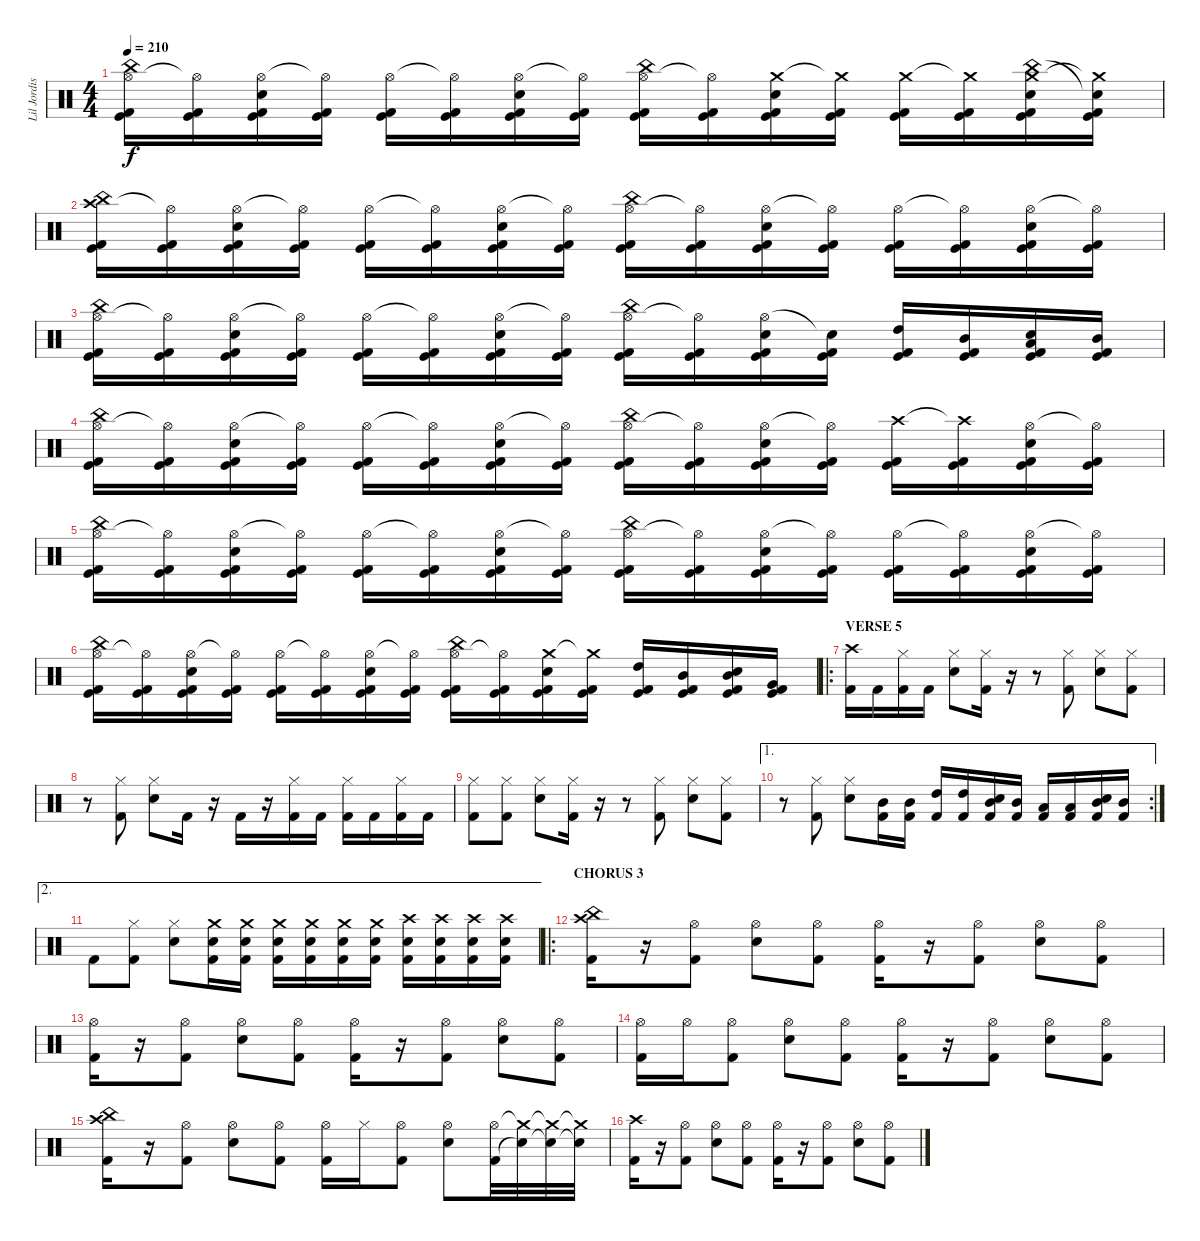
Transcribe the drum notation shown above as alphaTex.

\track ("Lil Jordison" "Lil Jordis") {instrument percussion}
\staff {score}
\articulation defaults
\ts (4 4)
\tempo 210
\clef neutral
\ks c
("Hi-Hat (open)" "China (hit)" "Kick (hit)" "Kick (hit) 2").16{dy f} ("Hi-Hat (open)"{t} "Kick (hit)" "Kick (hit) 2").16 ("Hi-Hat (open)" "Electric Snare (hit)" "Kick (hit)" "Kick (hit) 2").16 ("Hi-Hat (open)"{t} "Kick (hit)" "Kick (hit) 2").16 ("Hi-Hat (open)" "Kick (hit)" "Kick (hit) 2").16 ("Hi-Hat (open)"{t} "Kick (hit)" "Kick (hit) 2").16 ("Hi-Hat (open)" "Electric Snare (hit)" "Kick (hit)" "Kick (hit) 2").16 ("Hi-Hat (open)"{t} "Kick (hit)" "Kick (hit) 2").16 ("Hi-Hat (open)" "China (hit)" "Kick (hit)" "Kick (hit) 2").16 ("Hi-Hat (open)"{t} "Kick (hit)" "Kick (hit) 2").16 ("Crash medium (hit)" "Electric Snare (hit)" "Kick (hit)" "Kick (hit) 2").16 ("Crash medium (hit)"{t} "Kick (hit)" "Kick (hit) 2").16 ("Crash medium (hit)" "Kick (hit)" "Kick (hit) 2").16 ("Crash medium (hit)"{t} "Kick (hit)" "Kick (hit) 2").16 ("Crash medium (hit)" "China (hit)" "Electric Snare (hit)" "Kick (hit)" "Kick (hit) 2").16 ("Crash medium (hit)"{t} "Snare (hit)"{t} "Kick (hit)" "Kick (hit) 2").16 |
("Crash high (hit)" "China (hit)" "Kick (hit)" "Kick (hit) 2").16 ("Hi-Hat (open)"{t} "Kick (hit)" "Kick (hit) 2").16 ("Hi-Hat (open)" "Electric Snare (hit)" "Kick (hit)" "Kick (hit) 2").16 ("Hi-Hat (open)"{t} "Kick (hit)" "Kick (hit) 2").16 ("Hi-Hat (open)" "Kick (hit)" "Kick (hit) 2").16 ("Hi-Hat (open)"{t} "Kick (hit)" "Kick (hit) 2").16 ("Hi-Hat (open)" "Electric Snare (hit)" "Kick (hit)" "Kick (hit) 2").16 ("Hi-Hat (open)"{t} "Kick (hit)" "Kick (hit) 2").16 ("Hi-Hat (open)" "China (hit)" "Kick (hit)" "Kick (hit) 2").16 ("Hi-Hat (open)"{t} "Kick (hit)" "Kick (hit) 2").16 ("Hi-Hat (open)" "Electric Snare (hit)" "Kick (hit)" "Kick (hit) 2").16 ("Hi-Hat (open)"{t} "Kick (hit)" "Kick (hit) 2").16 ("Hi-Hat (open)" "Kick (hit)" "Kick (hit) 2").16 ("Hi-Hat (open)"{t} "Kick (hit)" "Kick (hit) 2").16 ("Hi-Hat (open)" "Electric Snare (hit)" "Kick (hit)" "Kick (hit) 2").16 ("Hi-Hat (open)"{t} "Kick (hit)" "Kick (hit) 2").16 |
("Hi-Hat (open)" "China (hit)" "Kick (hit)" "Kick (hit) 2").16 ("Hi-Hat (open)"{t} "Kick (hit)" "Kick (hit) 2").16 ("Hi-Hat (open)" "Electric Snare (hit)" "Kick (hit)" "Kick (hit) 2").16 ("Hi-Hat (open)"{t} "Kick (hit)" "Kick (hit) 2").16 ("Hi-Hat (open)" "Kick (hit)" "Kick (hit) 2").16 ("Hi-Hat (open)"{t} "Kick (hit)" "Kick (hit) 2").16 ("Hi-Hat (open)" "Electric Snare (hit)" "Kick (hit)" "Kick (hit) 2").16 ("Hi-Hat (open)"{t} "Kick (hit)" "Kick (hit) 2").16 ("Hi-Hat (open)" "China (hit)" "Kick (hit)" "Kick (hit) 2").16 ("Hi-Hat (open)"{t} "Kick (hit)" "Kick (hit) 2").16 ("Hi-Hat (open)" "Electric Snare (hit)" "Kick (hit)" "Kick (hit) 2").16 ("Snare (hit)"{t} "Kick (hit)" "Kick (hit) 2").16 ("High Tom (hit)" "Kick (hit)" "Kick (hit) 2").16 ("Mid Tom (hit)" "Kick (hit)" "Kick (hit) 2").16 ("Low Tom (hit)" "Electric Snare (hit)" "Kick (hit)" "Kick (hit) 2").16 ("Mid Tom (hit)" "Kick (hit)" "Kick (hit) 2").16 |
("Hi-Hat (open)" "China (hit)" "Kick (hit)" "Kick (hit) 2").16 ("Hi-Hat (open)"{t} "Kick (hit)" "Kick (hit) 2").16 ("Hi-Hat (open)" "Electric Snare (hit)" "Kick (hit)" "Kick (hit) 2").16 ("Hi-Hat (open)"{t} "Kick (hit)" "Kick (hit) 2").16 ("Hi-Hat (open)" "Kick (hit)" "Kick (hit) 2").16 ("Hi-Hat (open)"{t} "Kick (hit)" "Kick (hit) 2").16 ("Hi-Hat (open)" "Electric Snare (hit)" "Kick (hit)" "Kick (hit) 2").16 ("Hi-Hat (open)"{t} "Kick (hit)" "Kick (hit) 2").16 ("Hi-Hat (open)" "China (hit)" "Kick (hit)" "Kick (hit) 2").16 ("Hi-Hat (open)"{t} "Kick (hit)" "Kick (hit) 2").16 ("Hi-Hat (open)" "Electric Snare (hit)" "Kick (hit)" "Kick (hit) 2").16 ("Hi-Hat (open)"{t} "Kick (hit)" "Kick (hit) 2").16 ("Crash high (hit)" "Kick (hit)" "Kick (hit) 2").16 ("Crash high (hit)"{t} "Kick (hit)" "Kick (hit) 2").16 ("Hi-Hat (open)" "Electric Snare (hit)" "Kick (hit)" "Kick (hit) 2").16 ("Hi-Hat (open)"{t} "Kick (hit)" "Kick (hit) 2").16 |
("Hi-Hat (open)" "China (hit)" "Kick (hit)" "Kick (hit) 2").16 ("Hi-Hat (open)"{t} "Kick (hit)" "Kick (hit) 2").16 ("Hi-Hat (open)" "Electric Snare (hit)" "Kick (hit)" "Kick (hit) 2").16 ("Hi-Hat (open)"{t} "Kick (hit)" "Kick (hit) 2").16 ("Hi-Hat (open)" "Kick (hit)" "Kick (hit) 2").16 ("Hi-Hat (open)"{t} "Kick (hit)" "Kick (hit) 2").16 ("Hi-Hat (open)" "Electric Snare (hit)" "Kick (hit)" "Kick (hit) 2").16 ("Hi-Hat (open)"{t} "Kick (hit)" "Kick (hit) 2").16 ("Hi-Hat (open)" "China (hit)" "Kick (hit)" "Kick (hit) 2").16 ("Hi-Hat (open)"{t} "Kick (hit)" "Kick (hit) 2").16 ("Hi-Hat (open)" "Electric Snare (hit)" "Kick (hit)" "Kick (hit) 2").16 ("Hi-Hat (open)"{t} "Kick (hit)" "Kick (hit) 2").16 ("Hi-Hat (open)" "Kick (hit)" "Kick (hit) 2").16 ("Hi-Hat (open)"{t} "Kick (hit)" "Kick (hit) 2").16 ("Hi-Hat (open)" "Electric Snare (hit)" "Kick (hit)" "Kick (hit) 2").16 ("Hi-Hat (open)"{t} "Kick (hit)" "Kick (hit) 2").16 |
("Hi-Hat (open)" "China (hit)" "Kick (hit)" "Kick (hit) 2").16 ("Hi-Hat (open)"{t} "Kick (hit)" "Kick (hit) 2").16 ("Hi-Hat (open)" "Electric Snare (hit)" "Kick (hit)" "Kick (hit) 2").16 ("Hi-Hat (open)"{t} "Kick (hit)" "Kick (hit) 2").16 ("Hi-Hat (open)" "Kick (hit)" "Kick (hit) 2").16 ("Hi-Hat (open)"{t} "Kick (hit)" "Kick (hit) 2").16 ("Hi-Hat (open)" "Electric Snare (hit)" "Kick (hit)" "Kick (hit) 2").16 ("Hi-Hat (open)"{t} "Kick (hit)" "Kick (hit) 2").16 ("Hi-Hat (open)" "China (hit)" "Kick (hit)" "Kick (hit) 2").16 ("Hi-Hat (open)"{t} "Kick (hit)" "Kick (hit) 2").16 ("Crash medium (hit)" "Electric Snare (hit)" "Kick (hit)" "Kick (hit) 2").16 ("Crash medium (hit)"{t} "Kick (hit)" "Kick (hit) 2").16 ("High Tom (hit)" "Kick (hit)" "Kick (hit) 2").16 ("Mid Tom (hit)" "Kick (hit)" "Kick (hit) 2").16 ("Mid Tom (hit)" "Electric Snare (hit)" "Kick (hit)" "Kick (hit) 2").16 ("Very Low Tom (hit)" "Kick (hit)" "Kick (hit) 2").16 |
\ro
\section ("" "VERSE 5")
("Crash high (hit)" "Kick (hit) 2").16 "Kick (hit) 2".16 ("Hi-Hat (closed)" "Kick (hit) 2").16 "Kick (hit) 2".16 ("Hi-Hat (closed)" "Electric Snare (hit)").8 ("Hi-Hat (closed)" "Kick (hit) 2").16 r.16 r.8 ("Hi-Hat (closed)" "Kick (hit) 2").8 ("Hi-Hat (closed)" "Electric Snare (hit)").8 ("Hi-Hat (closed)" "Kick (hit) 2").8 |
r.8 ("Hi-Hat (closed)" "Kick (hit) 2").8 ("Hi-Hat (closed)" "Electric Snare (hit)").8 "Kick (hit) 2".16 r.16 "Kick (hit) 2".16 r.16 ("Hi-Hat (closed)" "Kick (hit) 2").16 "Kick (hit) 2".16 ("Hi-Hat (closed)" "Kick (hit) 2").16 "Kick (hit) 2".16 ("Hi-Hat (closed)" "Kick (hit) 2").16 "Kick (hit) 2".16 |
("Hi-Hat (closed)" "Kick (hit) 2").8 ("Hi-Hat (closed)" "Kick (hit) 2").8 ("Hi-Hat (closed)" "Electric Snare (hit)").8 ("Hi-Hat (closed)" "Kick (hit) 2").16 r.16 r.8 ("Hi-Hat (closed)" "Kick (hit) 2").8 ("Hi-Hat (closed)" "Electric Snare (hit)").8 ("Hi-Hat (closed)" "Kick (hit) 2").8 |
\ae 1
\rc 2
r.8 ("Hi-Hat (closed)" "Kick (hit) 2").8 ("Hi-Hat (closed)" "Electric Snare (hit)").8 ("Mid Tom (hit)" "Kick (hit) 2").16 ("Mid Tom (hit)" "Kick (hit) 2").16 ("High Tom (hit)" "Kick (hit) 2").16 ("High Tom (hit)" "Kick (hit) 2").16 ("Mid Tom (hit)" "Electric Snare (hit)" "Kick (hit) 2").16 ("Mid Tom (hit)" "Kick (hit) 2").16 ("Low Tom (hit)" "Kick (hit) 2").16 ("Low Tom (hit)" "Kick (hit) 2").16 ("Mid Tom (hit)" "Electric Snare (hit)" "Kick (hit) 2").16 ("Mid Tom (hit)" "Kick (hit) 2").16 |
\ae 2 "Kick (hit) 2".8
("Hi-Hat (closed)" "Kick (hit) 2").8 ("Hi-Hat (closed)" "Electric Snare (hit)").8 ("Crash medium (hit)" "Electric Snare (hit)" "Kick (hit) 2").16 ("Crash medium (hit)" "Electric Snare (hit)" "Kick (hit) 2").16 ("Crash medium (hit)" "Electric Snare (hit)" "Kick (hit) 2").16 ("Crash medium (hit)" "Electric Snare (hit)" "Kick (hit) 2").16 ("Crash medium (hit)" "Electric Snare (hit)" "Kick (hit) 2").16 ("Crash medium (hit)" "Electric Snare (hit)" "Kick (hit) 2").16 ("Crash high (hit)" "Electric Snare (hit)" "Kick (hit) 2").16 ("Crash high (hit)" "Electric Snare (hit)" "Kick (hit) 2").16 ("Crash high (hit)" "Electric Snare (hit)" "Kick (hit) 2").16 ("Crash high (hit)" "Electric Snare (hit)" "Kick (hit) 2").16 |
\ro
\section ("" "CHORUS 3")
("Crash high (hit)" "China (hit)" "Kick (hit) 2").16 r.16 ("Hi-Hat (open)" "Kick (hit) 2").8 ("Hi-Hat (open)" "Electric Snare (hit)").8 ("Hi-Hat (open)" "Kick (hit) 2").8 ("Hi-Hat (open)" "Kick (hit) 2").16 r.16 ("Hi-Hat (open)" "Kick (hit) 2").8 ("Hi-Hat (open)" "Electric Snare (hit)").8 ("Hi-Hat (open)" "Kick (hit) 2").8 |
("Hi-Hat (open)" "Kick (hit) 2").16 r.16 ("Hi-Hat (open)" "Kick (hit) 2").8 ("Hi-Hat (open)" "Electric Snare (hit)").8 ("Hi-Hat (open)" "Kick (hit) 2").8 ("Hi-Hat (open)" "Kick (hit) 2").16 r.16 ("Hi-Hat (open)" "Kick (hit) 2").8 ("Hi-Hat (open)" "Electric Snare (hit)").8 ("Hi-Hat (open)" "Kick (hit) 2").8 |
("Hi-Hat (open)" "Kick (hit) 2").16 "Hi-Hat (open)".16 ("Hi-Hat (open)" "Kick (hit) 2").8 ("Hi-Hat (open)" "Electric Snare (hit)").8 ("Hi-Hat (open)" "Kick (hit) 2").8 ("Hi-Hat (open)" "Kick (hit) 2").16 r.16 ("Hi-Hat (open)" "Kick (hit) 2").8 ("Hi-Hat (open)" "Electric Snare (hit)").8 ("Hi-Hat (open)" "Kick (hit) 2").8 |
("Crash high (hit)" "China (hit)" "Kick (hit) 2").16 r.16 ("Hi-Hat (open)" "Kick (hit) 2").8 ("Hi-Hat (open)" "Electric Snare (hit)").8 ("Hi-Hat (open)" "Kick (hit) 2").8 ("Hi-Hat (open)" "Kick (hit) 2").16 "Hi-Hat (closed)".16 ("Hi-Hat (open)" "Kick (hit) 2").8 ("Hi-Hat (open)" "Electric Snare (hit)").8 ("Hi-Hat (open)" "Kick (hit) 2").32 ("Crash medium (hit)"{t} "Electric Snare (hit)"{t}).32 ("Crash medium (hit)"{t} "Electric Snare (hit)"{t}).32 ("Crash medium (hit)"{t} "Electric Snare (hit)"{t}).32 |
("Crash high (hit)" "Kick (hit) 2").16 r.16 ("Hi-Hat (open)" "Kick (hit) 2").8 ("Hi-Hat (open)" "Electric Snare (hit)").8 ("Hi-Hat (open)" "Kick (hit) 2").8 ("Hi-Hat (open)" "Kick (hit) 2").16 r.16 ("Hi-Hat (open)" "Kick (hit) 2").8 ("Hi-Hat (open)" "Electric Snare (hit)").8 ("Hi-Hat (open)" "Kick (hit) 2").8
